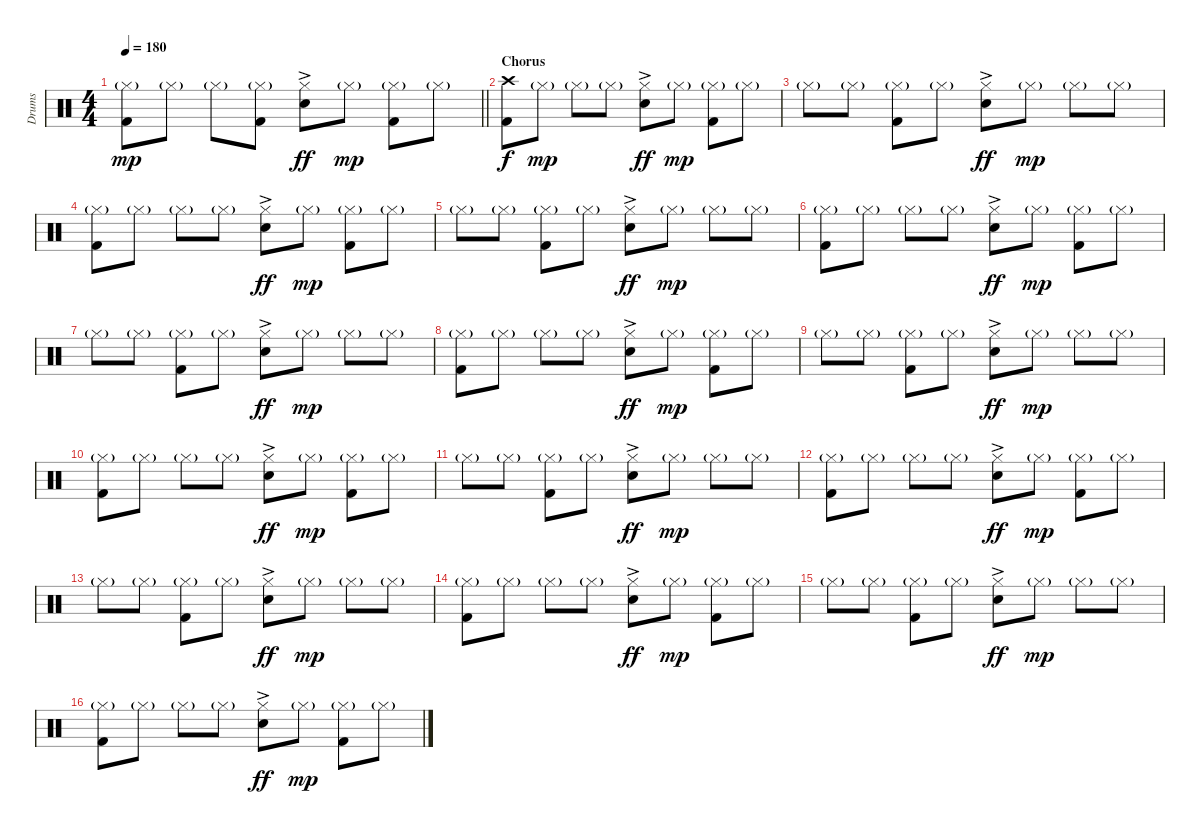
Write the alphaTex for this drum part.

\track ("Drums" "Drums") {instrument percussion}
\staff {score}
\articulation defaults
\ts (4 4)
\tempo 180
\clef neutral
\barLineRight lightlight
\ks c
("Hi-Hat (closed)"{g} "Kick (hit) 2").8{dy mp} "Hi-Hat (closed)"{g}.8 "Hi-Hat (closed)"{g}.8 ("Hi-Hat (closed)"{g} "Kick (hit) 2").8 ("Hi-Hat (closed)"{ac} "Snare (hit) 2"{ac}).8{dy ff} "Hi-Hat (closed)"{g}.8{dy mp} ("Hi-Hat (closed)"{g} "Kick (hit) 2").8 "Hi-Hat (closed)"{g}.8 |
\section ("" "Chorus")
("Crash high (hit)" "Kick (hit) 2").8{dy f} "Hi-Hat (closed)"{g}.8{dy mp} "Hi-Hat (closed)"{g}.8 "Hi-Hat (closed)"{g}.8 ("Hi-Hat (closed)"{ac} "Snare (hit) 2"{ac}).8{dy ff} "Hi-Hat (closed)"{g}.8{dy mp} ("Hi-Hat (closed)"{g} "Kick (hit) 2").8 "Hi-Hat (closed)"{g}.8 |
"Hi-Hat (closed)"{g}.8 "Hi-Hat (closed)"{g}.8 ("Hi-Hat (closed)"{g} "Kick (hit) 2").8 "Hi-Hat (closed)"{g}.8 ("Hi-Hat (closed)"{ac} "Snare (hit) 2"{ac}).8{dy ff} "Hi-Hat (closed)"{g}.8{dy mp} "Hi-Hat (closed)"{g}.8 "Hi-Hat (closed)"{g}.8 |
("Hi-Hat (closed)"{g} "Kick (hit) 2").8 "Hi-Hat (closed)"{g}.8 "Hi-Hat (closed)"{g}.8 "Hi-Hat (closed)"{g}.8 ("Hi-Hat (closed)"{ac} "Snare (hit) 2"{ac}).8{dy ff} "Hi-Hat (closed)"{g}.8{dy mp} ("Hi-Hat (closed)"{g} "Kick (hit) 2").8 "Hi-Hat (closed)"{g}.8 |
"Hi-Hat (closed)"{g}.8 "Hi-Hat (closed)"{g}.8 ("Hi-Hat (closed)"{g} "Kick (hit) 2").8 "Hi-Hat (closed)"{g}.8 ("Hi-Hat (closed)"{ac} "Snare (hit) 2"{ac}).8{dy ff} "Hi-Hat (closed)"{g}.8{dy mp} "Hi-Hat (closed)"{g}.8 "Hi-Hat (closed)"{g}.8 |
("Hi-Hat (closed)"{g} "Kick (hit) 2").8 "Hi-Hat (closed)"{g}.8 "Hi-Hat (closed)"{g}.8 "Hi-Hat (closed)"{g}.8 ("Hi-Hat (closed)"{ac} "Snare (hit) 2"{ac}).8{dy ff} "Hi-Hat (closed)"{g}.8{dy mp} ("Hi-Hat (closed)"{g} "Kick (hit) 2").8 "Hi-Hat (closed)"{g}.8 |
"Hi-Hat (closed)"{g}.8 "Hi-Hat (closed)"{g}.8 ("Hi-Hat (closed)"{g} "Kick (hit) 2").8 "Hi-Hat (closed)"{g}.8 ("Hi-Hat (closed)"{ac} "Snare (hit) 2"{ac}).8{dy ff} "Hi-Hat (closed)"{g}.8{dy mp} "Hi-Hat (closed)"{g}.8 "Hi-Hat (closed)"{g}.8 |
("Hi-Hat (closed)"{g} "Kick (hit) 2").8 "Hi-Hat (closed)"{g}.8 "Hi-Hat (closed)"{g}.8 "Hi-Hat (closed)"{g}.8 ("Hi-Hat (closed)"{ac} "Snare (hit) 2"{ac}).8{dy ff} "Hi-Hat (closed)"{g}.8{dy mp} ("Hi-Hat (closed)"{g} "Kick (hit) 2").8 "Hi-Hat (closed)"{g}.8 |
"Hi-Hat (closed)"{g}.8 "Hi-Hat (closed)"{g}.8 ("Hi-Hat (closed)"{g} "Kick (hit) 2").8 "Hi-Hat (closed)"{g}.8 ("Hi-Hat (closed)"{ac} "Snare (hit) 2"{ac}).8{dy ff} "Hi-Hat (closed)"{g}.8{dy mp} "Hi-Hat (closed)"{g}.8 "Hi-Hat (closed)"{g}.8 |
("Hi-Hat (closed)"{g} "Kick (hit) 2").8 "Hi-Hat (closed)"{g}.8 "Hi-Hat (closed)"{g}.8 "Hi-Hat (closed)"{g}.8 ("Hi-Hat (closed)"{ac} "Snare (hit) 2"{ac}).8{dy ff} "Hi-Hat (closed)"{g}.8{dy mp} ("Hi-Hat (closed)"{g} "Kick (hit) 2").8 "Hi-Hat (closed)"{g}.8 |
"Hi-Hat (closed)"{g}.8 "Hi-Hat (closed)"{g}.8 ("Hi-Hat (closed)"{g} "Kick (hit) 2").8 "Hi-Hat (closed)"{g}.8 ("Hi-Hat (closed)"{ac} "Snare (hit) 2"{ac}).8{dy ff} "Hi-Hat (closed)"{g}.8{dy mp} "Hi-Hat (closed)"{g}.8 "Hi-Hat (closed)"{g}.8 |
("Hi-Hat (closed)"{g} "Kick (hit) 2").8 "Hi-Hat (closed)"{g}.8 "Hi-Hat (closed)"{g}.8 "Hi-Hat (closed)"{g}.8 ("Hi-Hat (closed)"{ac} "Snare (hit) 2"{ac}).8{dy ff} "Hi-Hat (closed)"{g}.8{dy mp} ("Hi-Hat (closed)"{g} "Kick (hit) 2").8 "Hi-Hat (closed)"{g}.8 |
"Hi-Hat (closed)"{g}.8 "Hi-Hat (closed)"{g}.8 ("Hi-Hat (closed)"{g} "Kick (hit) 2").8 "Hi-Hat (closed)"{g}.8 ("Hi-Hat (closed)"{ac} "Snare (hit) 2"{ac}).8{dy ff} "Hi-Hat (closed)"{g}.8{dy mp} "Hi-Hat (closed)"{g}.8 "Hi-Hat (closed)"{g}.8 |
("Hi-Hat (closed)"{g} "Kick (hit) 2").8 "Hi-Hat (closed)"{g}.8 "Hi-Hat (closed)"{g}.8 "Hi-Hat (closed)"{g}.8 ("Hi-Hat (closed)"{ac} "Snare (hit) 2"{ac}).8{dy ff} "Hi-Hat (closed)"{g}.8{dy mp} ("Hi-Hat (closed)"{g} "Kick (hit) 2").8 "Hi-Hat (closed)"{g}.8 |
"Hi-Hat (closed)"{g}.8 "Hi-Hat (closed)"{g}.8 ("Hi-Hat (closed)"{g} "Kick (hit) 2").8 "Hi-Hat (closed)"{g}.8 ("Hi-Hat (closed)"{ac} "Snare (hit) 2"{ac}).8{dy ff} "Hi-Hat (closed)"{g}.8{dy mp} "Hi-Hat (closed)"{g}.8 "Hi-Hat (closed)"{g}.8 |
("Hi-Hat (closed)"{g} "Kick (hit) 2").8 "Hi-Hat (closed)"{g}.8 "Hi-Hat (closed)"{g}.8 "Hi-Hat (closed)"{g}.8 ("Hi-Hat (closed)"{ac} "Snare (hit) 2"{ac}).8{dy ff} "Hi-Hat (closed)"{g}.8{dy mp} ("Hi-Hat (closed)"{g} "Kick (hit) 2").8 "Hi-Hat (closed)"{g}.8
